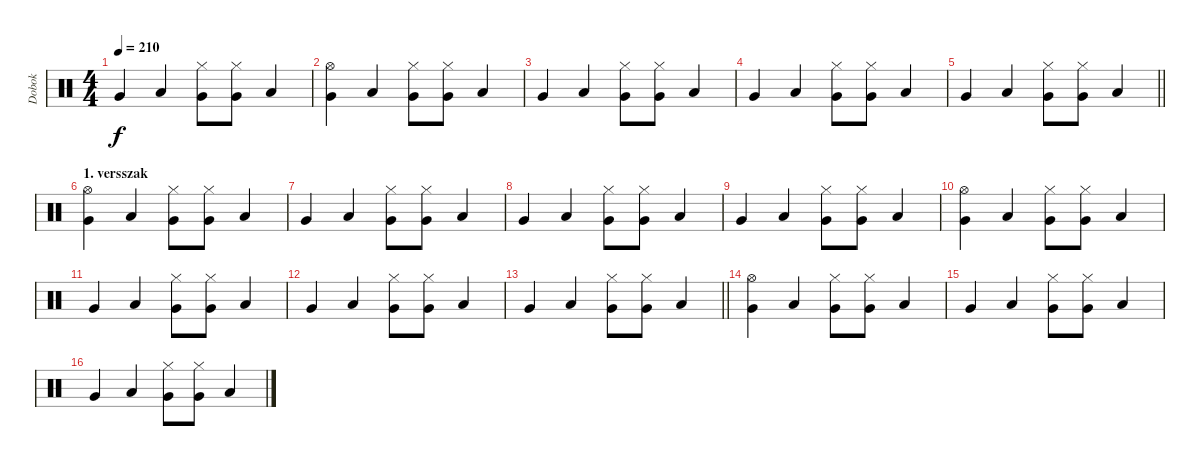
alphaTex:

\track ("Dobok" "Dobok") {instrument percussion}
\staff {score}
\articulation defaults
\ts (4 4)
\tempo 210
\clef neutral
\ks c "Very Low Tom (hit)".4{dy f} "Low Tom (hit)".4
("Hi-Hat (closed)" "Very Low Tom (hit)").8 ("Hi-Hat (closed)" "Very Low Tom (hit)").8 "Low Tom (hit)".4 |
("Hi-Hat (open)" "Very Low Tom (hit)").4 "Low Tom (hit)".4 ("Hi-Hat (closed)" "Very Low Tom (hit)").8 ("Hi-Hat (closed)" "Very Low Tom (hit)").8 "Low Tom (hit)".4 |
"Very Low Tom (hit)".4 "Low Tom (hit)".4 ("Hi-Hat (closed)" "Very Low Tom (hit)").8 ("Hi-Hat (closed)" "Very Low Tom (hit)").8 "Low Tom (hit)".4 |
"Very Low Tom (hit)".4 "Low Tom (hit)".4 ("Hi-Hat (closed)" "Very Low Tom (hit)").8 ("Hi-Hat (closed)" "Very Low Tom (hit)").8 "Low Tom (hit)".4 |
\barLineRight lightlight "Very Low Tom (hit)".4 "Low Tom (hit)".4
("Hi-Hat (closed)" "Very Low Tom (hit)").8 ("Hi-Hat (closed)" "Very Low Tom (hit)").8 "Low Tom (hit)".4 |
\section ("" "1. versszak")
("Hi-Hat (open)" "Very Low Tom (hit)").4 "Low Tom (hit)".4 ("Hi-Hat (closed)" "Very Low Tom (hit)").8 ("Hi-Hat (closed)" "Very Low Tom (hit)").8 "Low Tom (hit)".4 |
"Very Low Tom (hit)".4 "Low Tom (hit)".4 ("Hi-Hat (closed)" "Very Low Tom (hit)").8 ("Hi-Hat (closed)" "Very Low Tom (hit)").8 "Low Tom (hit)".4 |
"Very Low Tom (hit)".4 "Low Tom (hit)".4 ("Hi-Hat (closed)" "Very Low Tom (hit)").8 ("Hi-Hat (closed)" "Very Low Tom (hit)").8 "Low Tom (hit)".4 |
"Very Low Tom (hit)".4 "Low Tom (hit)".4 ("Hi-Hat (closed)" "Very Low Tom (hit)").8 ("Hi-Hat (closed)" "Very Low Tom (hit)").8 "Low Tom (hit)".4 |
("Hi-Hat (open)" "Very Low Tom (hit)").4 "Low Tom (hit)".4 ("Hi-Hat (closed)" "Very Low Tom (hit)").8 ("Hi-Hat (closed)" "Very Low Tom (hit)").8 "Low Tom (hit)".4 |
"Very Low Tom (hit)".4 "Low Tom (hit)".4 ("Hi-Hat (closed)" "Very Low Tom (hit)").8 ("Hi-Hat (closed)" "Very Low Tom (hit)").8 "Low Tom (hit)".4 |
"Very Low Tom (hit)".4 "Low Tom (hit)".4 ("Hi-Hat (closed)" "Very Low Tom (hit)").8 ("Hi-Hat (closed)" "Very Low Tom (hit)").8 "Low Tom (hit)".4 |
\barLineRight lightlight "Very Low Tom (hit)".4 "Low Tom (hit)".4
("Hi-Hat (closed)" "Very Low Tom (hit)").8 ("Hi-Hat (closed)" "Very Low Tom (hit)").8 "Low Tom (hit)".4 |
("Hi-Hat (open)" "Very Low Tom (hit)").4 "Low Tom (hit)".4 ("Hi-Hat (closed)" "Very Low Tom (hit)").8 ("Hi-Hat (closed)" "Very Low Tom (hit)").8 "Low Tom (hit)".4 |
"Very Low Tom (hit)".4 "Low Tom (hit)".4 ("Hi-Hat (closed)" "Very Low Tom (hit)").8 ("Hi-Hat (closed)" "Very Low Tom (hit)").8 "Low Tom (hit)".4 |
"Very Low Tom (hit)".4 "Low Tom (hit)".4 ("Hi-Hat (closed)" "Very Low Tom (hit)").8 ("Hi-Hat (closed)" "Very Low Tom (hit)").8 "Low Tom (hit)".4
